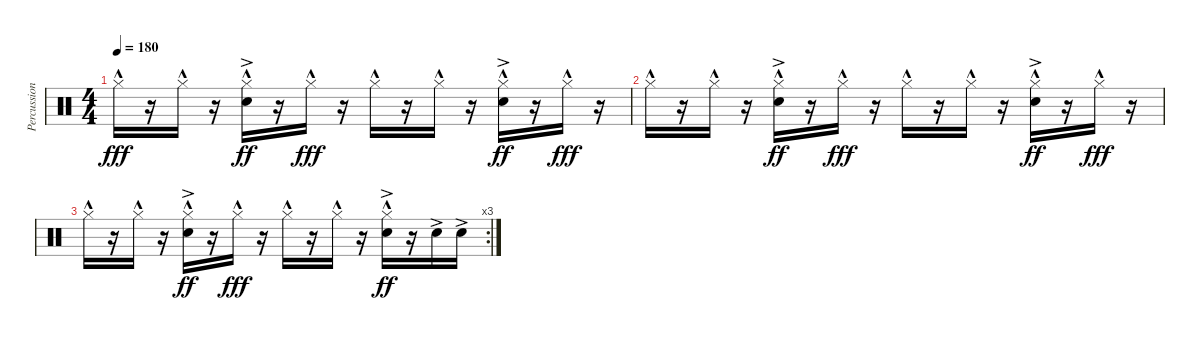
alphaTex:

\track ("Percussion" "Percussion") {instrument percussion}
\staff {score}
\articulation defaults
\ts (4 4)
\tempo 180
\clef neutral
\ks c "Hi-Hat (closed)"{hac}.16{dy fff}
r.16 "Hi-Hat (closed)"{hac}.16 r.16 ("Hi-Hat (closed)"{hac} "Snare (hit) 2"{ac}).16{dy ff} r.16 "Hi-Hat (closed)"{hac}.16{dy fff} r.16 "Hi-Hat (closed)"{hac}.16 r.16 "Hi-Hat (closed)"{hac}.16 r.16 ("Hi-Hat (closed)"{hac} "Snare (hit) 2"{ac}).16{dy ff} r.16 "Hi-Hat (closed)"{hac}.16{dy fff} r.16 |
"Hi-Hat (closed)"{hac}.16 r.16 "Hi-Hat (closed)"{hac}.16 r.16 ("Hi-Hat (closed)"{hac} "Snare (hit) 2"{ac}).16{dy ff} r.16 "Hi-Hat (closed)"{hac}.16{dy fff} r.16 "Hi-Hat (closed)"{hac}.16 r.16 "Hi-Hat (closed)"{hac}.16 r.16 ("Hi-Hat (closed)"{hac} "Snare (hit) 2"{ac}).16{dy ff} r.16 "Hi-Hat (closed)"{hac}.16{dy fff} r.16 |
\rc 3 "Hi-Hat (closed)"{hac}.16
r.16 "Hi-Hat (closed)"{hac}.16 r.16 ("Hi-Hat (closed)"{hac} "Snare (hit) 2"{ac}).16{dy ff} r.16 "Hi-Hat (closed)"{hac}.16{dy fff} r.16 "Hi-Hat (closed)"{hac}.16 r.16 "Hi-Hat (closed)"{hac}.16 r.16 ("Hi-Hat (closed)"{hac} "Snare (hit) 2"{ac}).16{dy ff} r.16 "Snare (hit) 2"{ac}.16 "Snare (hit) 2"{ac}.16
